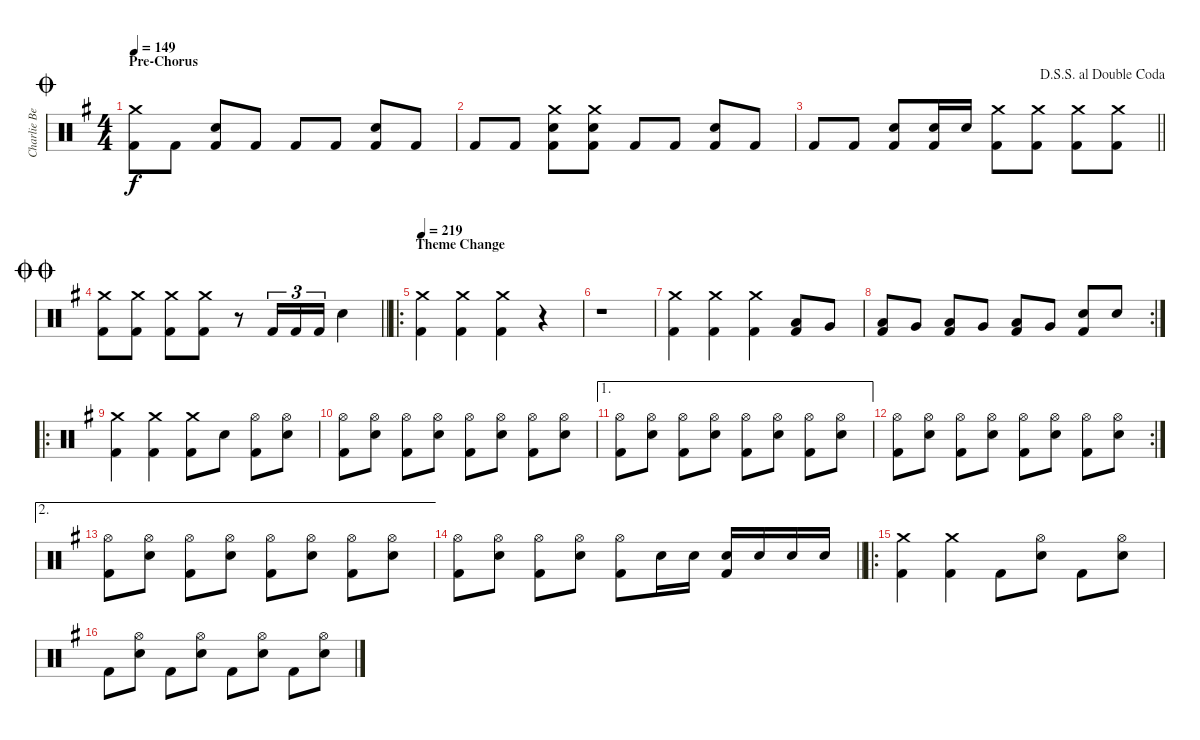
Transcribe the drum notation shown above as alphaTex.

\track ("Charlie Benate" "Charlie Be") {instrument percussion}
\staff {score}
\articulation defaults
\ts (4 4)
\section ("" "Pre-Chorus")
\jump coda
\tempo 149
\clef neutral
\ks g
("Crash medium (hit)" "Kick (hit) 2").8{dy f} "Kick (hit) 2".8 ("Snare (hit) 2" "Kick (hit) 2").8 "Kick (hit) 2".8 "Kick (hit) 2".8 "Kick (hit) 2".8 ("Snare (hit) 2" "Kick (hit) 2").8 "Kick (hit) 2".8 |
"Kick (hit) 2".8 "Kick (hit) 2".8 ("Crash medium (hit)" "Snare (hit) 2" "Kick (hit) 2").8 ("Crash medium (hit)" "Snare (hit) 2" "Kick (hit) 2").8 "Kick (hit) 2".8 "Kick (hit) 2".8 ("Snare (hit) 2" "Kick (hit) 2").8 "Kick (hit) 2".8 |
\jump dalsegnosegnoaldoublecoda
\barLineRight lightlight "Kick (hit) 2".8 "Kick (hit) 2".8
("Snare (hit) 2" "Kick (hit) 2").8 ("Snare (hit) 2" "Kick (hit) 2").16 "Snare (hit) 2".16 ("Crash medium (hit)" "Kick (hit) 2").8 ("Crash medium (hit)" "Kick (hit) 2").8 ("Crash medium (hit)" "Kick (hit) 2").8 ("Crash medium (hit)" "Kick (hit) 2").8 |
\jump doublecoda
\barLineRight lightlight
("Crash medium (hit)" "Kick (hit) 2").8 ("Crash medium (hit)" "Kick (hit) 2").8 ("Crash medium (hit)" "Kick (hit) 2").8 ("Crash medium (hit)" "Kick (hit) 2").8 r.8 "Kick (hit) 2".16{tu (3 2)} "Kick (hit) 2".16{tu (3 2)} "Kick (hit) 2".16{tu (3 2)} "Snare (hit) 2".4 |
\ro
\section ("" "Theme Change")
\tempo 219
("Crash medium (hit)" "Kick (hit) 2").4 ("Crash medium (hit)" "Kick (hit) 2").4 ("Crash medium (hit)" "Kick (hit) 2").4 r.4 |
r.1 |
("Crash medium (hit)" "Kick (hit) 2").4 ("Crash medium (hit)" "Kick (hit) 2").4 ("Crash medium (hit)" "Kick (hit) 2").4 ("Low Tom (hit)" "Kick (hit) 2").8 "Very Low Tom (hit)".8 |
\rc 2
("Low Tom (hit)" "Kick (hit) 2").8 "Very Low Tom (hit)".8 ("Low Tom (hit)" "Kick (hit) 2").8 "Very Low Tom (hit)".8 ("Low Tom (hit)" "Kick (hit) 2").8 "Very Low Tom (hit)".8 ("Snare (hit) 2" "Kick (hit) 2").8 "Snare (hit) 2".8 |
\ro
("Crash medium (hit)" "Kick (hit) 2").4 ("Crash medium (hit)" "Kick (hit) 2").4 ("Crash medium (hit)" "Kick (hit) 2").8 "Snare (hit) 2".8 ("Hi-Hat (open)" "Kick (hit) 2").8 ("Hi-Hat (open)" "Snare (hit) 2").8 |
("Hi-Hat (open)" "Kick (hit) 2").8 ("Hi-Hat (open)" "Snare (hit) 2").8 ("Hi-Hat (open)" "Kick (hit) 2").8 ("Hi-Hat (open)" "Snare (hit) 2").8 ("Hi-Hat (open)" "Kick (hit) 2").8 ("Hi-Hat (open)" "Snare (hit) 2").8 ("Hi-Hat (open)" "Kick (hit) 2").8 ("Hi-Hat (open)" "Snare (hit) 2").8 |
\ae 1
("Hi-Hat (open)" "Kick (hit) 2").8 ("Hi-Hat (open)" "Snare (hit) 2").8 ("Hi-Hat (open)" "Kick (hit) 2").8 ("Hi-Hat (open)" "Snare (hit) 2").8 ("Hi-Hat (open)" "Kick (hit) 2").8 ("Hi-Hat (open)" "Snare (hit) 2").8 ("Hi-Hat (open)" "Kick (hit) 2").8 ("Hi-Hat (open)" "Snare (hit) 2").8 |
\rc 2
("Hi-Hat (open)" "Kick (hit) 2").8 ("Hi-Hat (open)" "Snare (hit) 2").8 ("Hi-Hat (open)" "Kick (hit) 2").8 ("Hi-Hat (open)" "Snare (hit) 2").8 ("Hi-Hat (open)" "Kick (hit) 2").8 ("Hi-Hat (open)" "Snare (hit) 2").8 ("Hi-Hat (open)" "Kick (hit) 2").8 ("Hi-Hat (open)" "Snare (hit) 2").8 |
\ae 2
("Hi-Hat (open)" "Kick (hit) 2").8 ("Hi-Hat (open)" "Snare (hit) 2").8 ("Hi-Hat (open)" "Kick (hit) 2").8 ("Hi-Hat (open)" "Snare (hit) 2").8 ("Hi-Hat (open)" "Kick (hit) 2").8 ("Hi-Hat (open)" "Snare (hit) 2").8 ("Hi-Hat (open)" "Kick (hit) 2").8 ("Hi-Hat (open)" "Snare (hit) 2").8 |
\barLineRight lightlight
("Hi-Hat (open)" "Kick (hit) 2").8 ("Hi-Hat (open)" "Snare (hit) 2").8 ("Hi-Hat (open)" "Kick (hit) 2").8 ("Hi-Hat (open)" "Snare (hit) 2").8 ("Hi-Hat (open)" "Kick (hit) 2").8 "Snare (hit) 2".16 "Snare (hit) 2".16 ("Snare (hit) 2" "Kick (hit) 2").16 "Snare (hit) 2".16 "Snare (hit) 2".16 "Snare (hit) 2".16 |
\ro
("Crash medium (hit)" "Kick (hit) 2").4 ("Crash medium (hit)" "Kick (hit) 2").4 "Kick (hit) 2".8 ("Hi-Hat (open)" "Snare (hit) 2").8 "Kick (hit) 2".8 ("Hi-Hat (open)" "Snare (hit) 2").8 |
"Kick (hit) 2".8 ("Hi-Hat (open)" "Snare (hit) 2").8 "Kick (hit) 2".8 ("Hi-Hat (open)" "Snare (hit) 2").8 "Kick (hit) 2".8 ("Hi-Hat (open)" "Snare (hit) 2").8 "Kick (hit) 2".8 ("Hi-Hat (open)" "Snare (hit) 2").8
